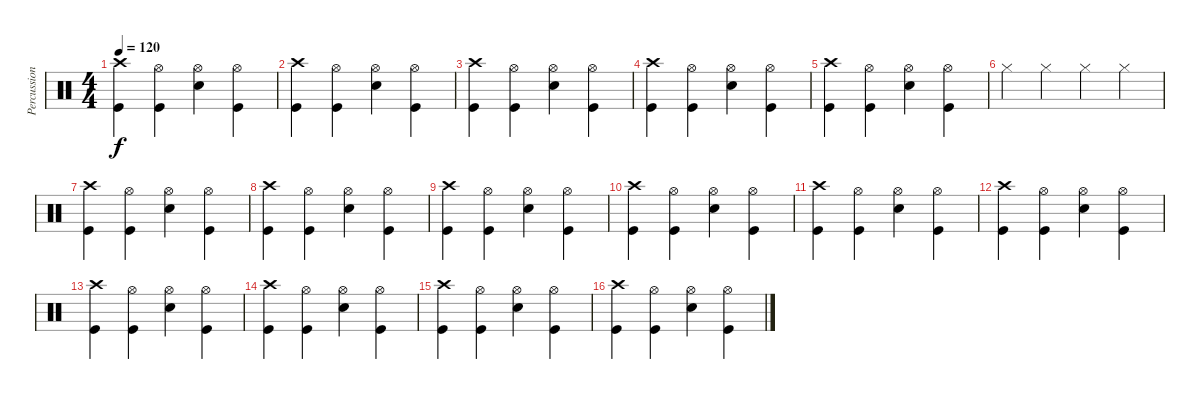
\track ("Percussion" "Percussion") {instrument percussion}
\staff {score}
\articulation defaults
\ts (4 4)
\tempo 120
\clef neutral
\ks c
("Crash high (hit)" "Kick (hit)").4{dy f} ("Hi-Hat (open)" "Kick (hit)").4 ("Hi-Hat (open)" "Snare (hit) 2").4 ("Hi-Hat (open)" "Kick (hit)").4 |
("Crash high (hit)" "Kick (hit)").4 ("Hi-Hat (open)" "Kick (hit)").4 ("Hi-Hat (open)" "Snare (hit) 2").4 ("Hi-Hat (open)" "Kick (hit)").4 |
("Crash high (hit)" "Kick (hit)").4 ("Hi-Hat (open)" "Kick (hit)").4 ("Hi-Hat (open)" "Snare (hit) 2").4 ("Hi-Hat (open)" "Kick (hit)").4 |
("Crash high (hit)" "Kick (hit)").4 ("Hi-Hat (open)" "Kick (hit)").4 ("Hi-Hat (open)" "Snare (hit) 2").4 ("Hi-Hat (open)" "Kick (hit)").4 |
("Crash high (hit)" "Kick (hit)").4 ("Hi-Hat (open)" "Kick (hit)").4 ("Hi-Hat (open)" "Snare (hit) 2").4 ("Hi-Hat (open)" "Kick (hit)").4 |
"Hi-Hat (closed)".4 "Hi-Hat (closed)".4 "Hi-Hat (closed)".4 "Hi-Hat (closed)".4 |
("Crash high (hit)" "Kick (hit)").4 ("Hi-Hat (open)" "Kick (hit)").4 ("Hi-Hat (open)" "Snare (hit) 2").4 ("Hi-Hat (open)" "Kick (hit)").4 |
("Crash high (hit)" "Kick (hit)").4 ("Hi-Hat (open)" "Kick (hit)").4 ("Hi-Hat (open)" "Snare (hit) 2").4 ("Hi-Hat (open)" "Kick (hit)").4 |
("Crash high (hit)" "Kick (hit)").4 ("Hi-Hat (open)" "Kick (hit)").4 ("Hi-Hat (open)" "Snare (hit) 2").4 ("Hi-Hat (open)" "Kick (hit)").4 |
("Crash high (hit)" "Kick (hit)").4 ("Hi-Hat (open)" "Kick (hit)").4 ("Hi-Hat (open)" "Snare (hit) 2").4 ("Hi-Hat (open)" "Kick (hit)").4 |
("Crash high (hit)" "Kick (hit)").4 ("Hi-Hat (open)" "Kick (hit)").4 ("Hi-Hat (open)" "Snare (hit) 2").4 ("Hi-Hat (open)" "Kick (hit)").4 |
("Crash high (hit)" "Kick (hit)").4 ("Hi-Hat (open)" "Kick (hit)").4 ("Hi-Hat (open)" "Snare (hit) 2").4 ("Hi-Hat (open)" "Kick (hit)").4 |
("Crash high (hit)" "Kick (hit)").4 ("Hi-Hat (open)" "Kick (hit)").4 ("Hi-Hat (open)" "Snare (hit) 2").4 ("Hi-Hat (open)" "Kick (hit)").4 |
("Crash high (hit)" "Kick (hit)").4 ("Hi-Hat (open)" "Kick (hit)").4 ("Hi-Hat (open)" "Snare (hit) 2").4 ("Hi-Hat (open)" "Kick (hit)").4 |
("Crash high (hit)" "Kick (hit)").4 ("Hi-Hat (open)" "Kick (hit)").4 ("Hi-Hat (open)" "Snare (hit) 2").4 ("Hi-Hat (open)" "Kick (hit)").4 |
("Crash high (hit)" "Kick (hit)").4 ("Hi-Hat (open)" "Kick (hit)").4 ("Hi-Hat (open)" "Snare (hit) 2").4 ("Hi-Hat (open)" "Kick (hit)").4
